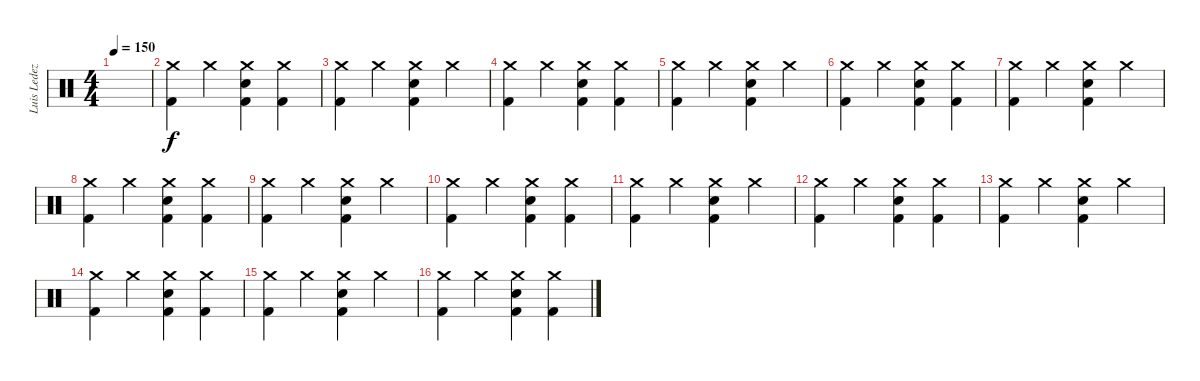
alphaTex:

\track ("Luis Ledezma" "Luis Ledez") {instrument percussion}
\staff {score}
\articulation defaults
\ts (4 4)
\tempo 150
\clef neutral
\ks c
|
("Crash medium (hit)" "Kick (hit) 2").4 "Crash medium (hit)".4 ("Crash medium (hit)" "Electric Snare (hit)" "Kick (hit) 2").4 ("Crash medium (hit)" "Kick (hit) 2").4 |
("Crash medium (hit)" "Kick (hit) 2").4 "Crash medium (hit)".4 ("Crash medium (hit)" "Electric Snare (hit)" "Kick (hit) 2").4 "Crash medium (hit)".4 |
("Crash medium (hit)" "Kick (hit) 2").4 "Crash medium (hit)".4 ("Crash medium (hit)" "Electric Snare (hit)" "Kick (hit) 2").4 ("Crash medium (hit)" "Kick (hit) 2").4 |
("Crash medium (hit)" "Kick (hit) 2").4 "Crash medium (hit)".4 ("Crash medium (hit)" "Electric Snare (hit)" "Kick (hit) 2").4 "Crash medium (hit)".4 |
("Crash medium (hit)" "Kick (hit) 2").4 "Crash medium (hit)".4 ("Crash medium (hit)" "Electric Snare (hit)" "Kick (hit) 2").4 ("Crash medium (hit)" "Kick (hit) 2").4 |
("Crash medium (hit)" "Kick (hit) 2").4 "Crash medium (hit)".4 ("Crash medium (hit)" "Electric Snare (hit)" "Kick (hit) 2").4 "Crash medium (hit)".4 |
("Crash medium (hit)" "Kick (hit) 2").4 "Crash medium (hit)".4 ("Crash medium (hit)" "Electric Snare (hit)" "Kick (hit) 2").4 ("Crash medium (hit)" "Kick (hit) 2").4 |
("Crash medium (hit)" "Kick (hit) 2").4 "Crash medium (hit)".4 ("Crash medium (hit)" "Electric Snare (hit)" "Kick (hit) 2").4 "Crash medium (hit)".4 |
("Crash medium (hit)" "Kick (hit) 2").4 "Crash medium (hit)".4 ("Crash medium (hit)" "Electric Snare (hit)" "Kick (hit) 2").4 ("Crash medium (hit)" "Kick (hit) 2").4 |
("Crash medium (hit)" "Kick (hit) 2").4 "Crash medium (hit)".4 ("Crash medium (hit)" "Electric Snare (hit)" "Kick (hit) 2").4 "Crash medium (hit)".4 |
("Crash medium (hit)" "Kick (hit) 2").4 "Crash medium (hit)".4 ("Crash medium (hit)" "Electric Snare (hit)" "Kick (hit) 2").4 ("Crash medium (hit)" "Kick (hit) 2").4 |
("Crash medium (hit)" "Kick (hit) 2").4 "Crash medium (hit)".4 ("Crash medium (hit)" "Electric Snare (hit)" "Kick (hit) 2").4 "Crash medium (hit)".4 |
("Crash medium (hit)" "Kick (hit) 2").4 "Crash medium (hit)".4 ("Crash medium (hit)" "Electric Snare (hit)" "Kick (hit) 2").4 ("Crash medium (hit)" "Kick (hit) 2").4 |
("Crash medium (hit)" "Kick (hit) 2").4 "Crash medium (hit)".4 ("Crash medium (hit)" "Electric Snare (hit)" "Kick (hit) 2").4 "Crash medium (hit)".4 |
("Crash medium (hit)" "Kick (hit) 2").4 "Crash medium (hit)".4 ("Crash medium (hit)" "Electric Snare (hit)" "Kick (hit) 2").4 ("Crash medium (hit)" "Kick (hit) 2").4
